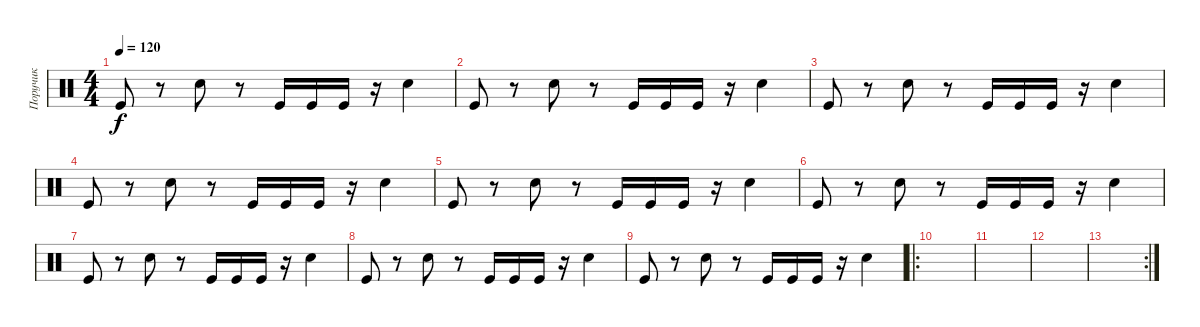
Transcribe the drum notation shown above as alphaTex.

\track ("Поручик" "Поручик") {instrument percussion}
\staff {score}
\articulation defaults
\ts (4 4)
\tempo 120
\clef neutral
\ks c "Kick (hit)".8{dy f}
r.8 "Snare (hit) 2".8 r.8 "Kick (hit)".16 "Kick (hit)".16 "Kick (hit)".16 r.16 "Snare (hit) 2".4 |
"Kick (hit)".8 r.8 "Snare (hit) 2".8 r.8 "Kick (hit)".16 "Kick (hit)".16 "Kick (hit)".16 r.16 "Snare (hit) 2".4 |
"Kick (hit)".8 r.8 "Snare (hit) 2".8 r.8 "Kick (hit)".16 "Kick (hit)".16 "Kick (hit)".16 r.16 "Snare (hit) 2".4 |
"Kick (hit)".8 r.8 "Snare (hit) 2".8 r.8 "Kick (hit)".16 "Kick (hit)".16 "Kick (hit)".16 r.16 "Snare (hit) 2".4 |
"Kick (hit)".8 r.8 "Snare (hit) 2".8 r.8 "Kick (hit)".16 "Kick (hit)".16 "Kick (hit)".16 r.16 "Snare (hit) 2".4 |
"Kick (hit)".8 r.8 "Snare (hit) 2".8 r.8 "Kick (hit)".16 "Kick (hit)".16 "Kick (hit)".16 r.16 "Snare (hit) 2".4 |
"Kick (hit)".8 r.8 "Snare (hit) 2".8 r.8 "Kick (hit)".16 "Kick (hit)".16 "Kick (hit)".16 r.16 "Snare (hit) 2".4 |
"Kick (hit)".8 r.8 "Snare (hit) 2".8 r.8 "Kick (hit)".16 "Kick (hit)".16 "Kick (hit)".16 r.16 "Snare (hit) 2".4 |
"Kick (hit)".8 r.8 "Snare (hit) 2".8 r.8 "Kick (hit)".16 "Kick (hit)".16 "Kick (hit)".16 r.16 "Snare (hit) 2".4 |
\ro
|
|
|
\rc 2
